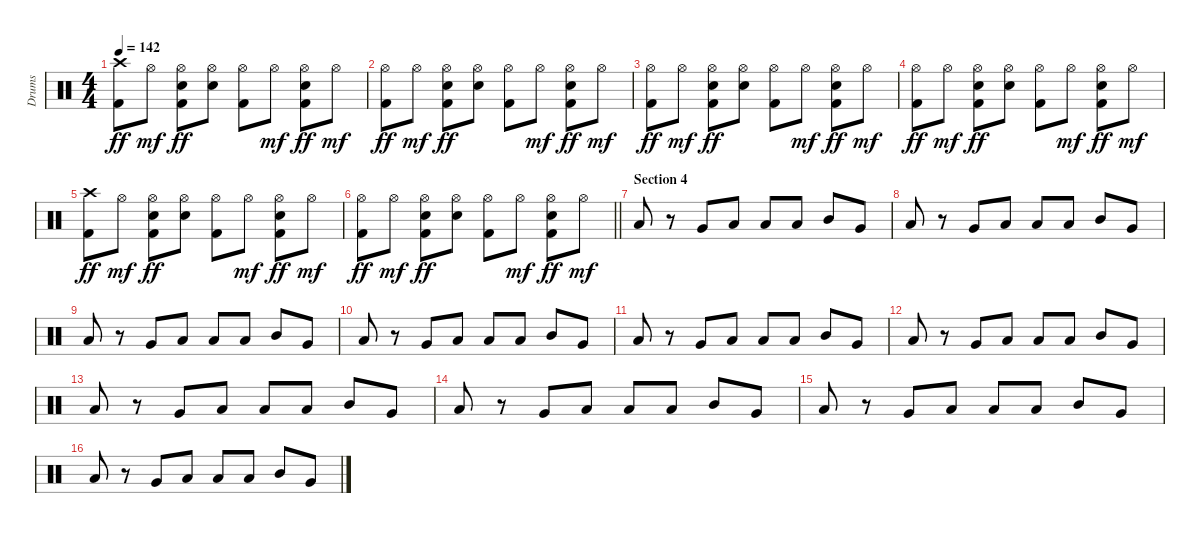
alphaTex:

\track ("Drums" "Drums") {instrument percussion}
\staff {score}
\articulation defaults
\ts (4 4)
\tempo 142
\clef neutral
\ks c
("Crash high (hit)" "Kick (hit) 2").8{dy ff} "Hi-Hat (open)".8{dy mf} ("Hi-Hat (open)" "Snare (hit) 2" "Kick (hit) 2").8{dy ff} ("Hi-Hat (open)" "Snare (hit) 2").8 ("Hi-Hat (open)" "Kick (hit) 2").8 "Hi-Hat (open)".8{dy mf} ("Hi-Hat (open)" "Snare (hit) 2" "Kick (hit) 2").8{dy ff} "Hi-Hat (open)".8{dy mf} |
("Hi-Hat (open)" "Kick (hit) 2").8{dy ff} "Hi-Hat (open)".8{dy mf} ("Hi-Hat (open)" "Snare (hit) 2" "Kick (hit) 2").8{dy ff} ("Hi-Hat (open)" "Snare (hit) 2").8 ("Hi-Hat (open)" "Kick (hit) 2").8 "Hi-Hat (open)".8{dy mf} ("Hi-Hat (open)" "Snare (hit) 2" "Kick (hit) 2").8{dy ff} "Hi-Hat (open)".8{dy mf} |
("Hi-Hat (open)" "Kick (hit) 2").8{dy ff} "Hi-Hat (open)".8{dy mf} ("Hi-Hat (open)" "Snare (hit) 2" "Kick (hit) 2").8{dy ff} ("Hi-Hat (open)" "Snare (hit) 2").8 ("Hi-Hat (open)" "Kick (hit) 2").8 "Hi-Hat (open)".8{dy mf} ("Hi-Hat (open)" "Snare (hit) 2" "Kick (hit) 2").8{dy ff} "Hi-Hat (open)".8{dy mf} |
("Hi-Hat (open)" "Kick (hit) 2").8{dy ff} "Hi-Hat (open)".8{dy mf} ("Hi-Hat (open)" "Snare (hit) 2" "Kick (hit) 2").8{dy ff} ("Hi-Hat (open)" "Snare (hit) 2").8 ("Hi-Hat (open)" "Kick (hit) 2").8 "Hi-Hat (open)".8{dy mf} ("Hi-Hat (open)" "Snare (hit) 2" "Kick (hit) 2").8{dy ff} "Hi-Hat (open)".8{dy mf} |
("Crash high (hit)" "Kick (hit) 2").8{dy ff} "Hi-Hat (open)".8{dy mf} ("Hi-Hat (open)" "Snare (hit) 2" "Kick (hit) 2").8{dy ff} ("Hi-Hat (open)" "Snare (hit) 2").8 ("Hi-Hat (open)" "Kick (hit) 2").8 "Hi-Hat (open)".8{dy mf} ("Hi-Hat (open)" "Snare (hit) 2" "Kick (hit) 2").8{dy ff} "Hi-Hat (open)".8{dy mf} |
\barLineRight lightlight
("Hi-Hat (open)" "Kick (hit) 2").8{dy ff} "Hi-Hat (open)".8{dy mf} ("Hi-Hat (open)" "Snare (hit) 2" "Kick (hit) 2").8{dy ff} ("Hi-Hat (open)" "Snare (hit) 2").8 ("Hi-Hat (open)" "Kick (hit) 2").8 "Hi-Hat (open)".8{dy mf} ("Hi-Hat (open)" "Snare (hit) 2" "Kick (hit) 2").8{dy ff} "Hi-Hat (open)".8{dy mf} |
\section ("" "Section 4")
"Low Tom (hit)".8 r.8 "Very Low Tom (hit)".8 "Low Tom (hit)".8 "Low Floor Tom (hit)".8 "Low Floor Tom (hit)".8 "Mid Tom (hit)".8 "Very Low Tom (hit)".8 |
"Low Tom (hit)".8 r.8 "Very Low Tom (hit)".8 "Low Tom (hit)".8 "Low Floor Tom (hit)".8 "Low Floor Tom (hit)".8 "Mid Tom (hit)".8 "Very Low Tom (hit)".8 |
"Low Tom (hit)".8 r.8 "Very Low Tom (hit)".8 "Low Tom (hit)".8 "Low Floor Tom (hit)".8 "Low Floor Tom (hit)".8 "Mid Tom (hit)".8 "Very Low Tom (hit)".8 |
"Low Tom (hit)".8 r.8 "Very Low Tom (hit)".8 "Low Tom (hit)".8 "Low Floor Tom (hit)".8 "Low Floor Tom (hit)".8 "Mid Tom (hit)".8 "Very Low Tom (hit)".8 |
"Low Tom (hit)".8 r.8 "Very Low Tom (hit)".8 "Low Tom (hit)".8 "Low Floor Tom (hit)".8 "Low Floor Tom (hit)".8 "Mid Tom (hit)".8 "Very Low Tom (hit)".8 |
"Low Tom (hit)".8 r.8 "Very Low Tom (hit)".8 "Low Tom (hit)".8 "Low Floor Tom (hit)".8 "Low Floor Tom (hit)".8 "Mid Tom (hit)".8 "Very Low Tom (hit)".8 |
"Low Tom (hit)".8 r.8 "Very Low Tom (hit)".8 "Low Tom (hit)".8 "Low Floor Tom (hit)".8 "Low Floor Tom (hit)".8 "Mid Tom (hit)".8 "Very Low Tom (hit)".8 |
"Low Tom (hit)".8 r.8 "Very Low Tom (hit)".8 "Low Tom (hit)".8 "Low Floor Tom (hit)".8 "Low Floor Tom (hit)".8 "Mid Tom (hit)".8 "Very Low Tom (hit)".8 |
"Low Tom (hit)".8 r.8 "Very Low Tom (hit)".8 "Low Tom (hit)".8 "Low Floor Tom (hit)".8 "Low Floor Tom (hit)".8 "Mid Tom (hit)".8 "Very Low Tom (hit)".8 |
"Low Tom (hit)".8 r.8 "Very Low Tom (hit)".8 "Low Tom (hit)".8 "Low Floor Tom (hit)".8 "Low Floor Tom (hit)".8 "Mid Tom (hit)".8 "Very Low Tom (hit)".8
